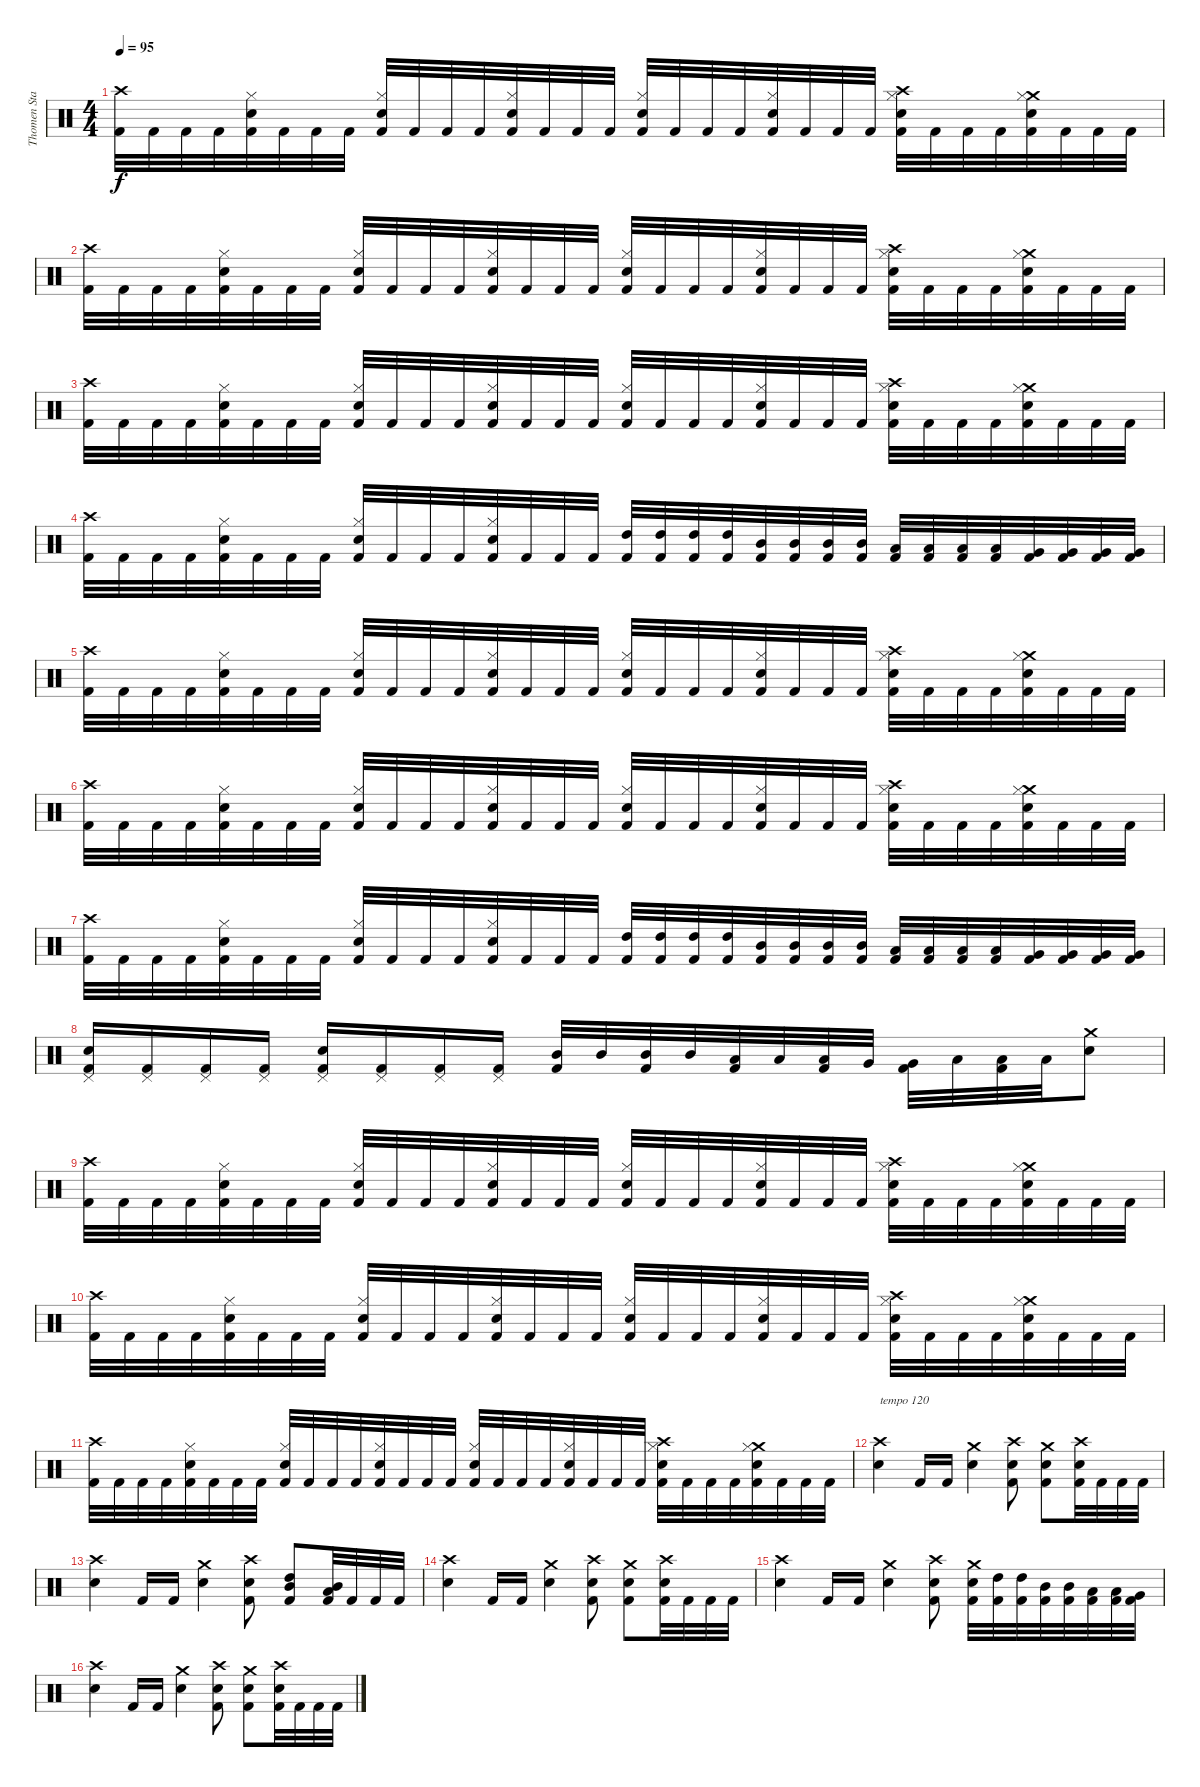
\track ("Thomen Stauch" "Thomen Sta") {instrument percussion}
\staff {score}
\articulation defaults
\ts (4 4)
\tempo 95
\clef neutral
\ks c
("Crash high (hit)" "Kick (hit) 2").32{dy f} "Kick (hit) 2".32 "Kick (hit) 2".32 "Kick (hit) 2".32 ("Hi-Hat (closed)" "Snare (hit) 2" "Kick (hit) 2").32 "Kick (hit) 2".32 "Kick (hit) 2".32 "Kick (hit) 2".32 ("Hi-Hat (closed)" "Snare (hit) 2" "Kick (hit) 2").32 "Kick (hit) 2".32 "Kick (hit) 2".32 "Kick (hit) 2".32 ("Hi-Hat (closed)" "Snare (hit) 2" "Kick (hit) 2").32 "Kick (hit) 2".32 "Kick (hit) 2".32 "Kick (hit) 2".32 ("Hi-Hat (closed)" "Snare (hit) 2" "Kick (hit) 2").32 "Kick (hit) 2".32 "Kick (hit) 2".32 "Kick (hit) 2".32 ("Hi-Hat (closed)" "Snare (hit) 2" "Kick (hit) 2").32 "Kick (hit) 2".32 "Kick (hit) 2".32 "Kick (hit) 2".32 ("Crash high (hit)" "Hi-Hat (closed)" "Snare (hit) 2" "Kick (hit) 2").32 "Kick (hit) 2".32 "Kick (hit) 2".32 "Kick (hit) 2".32 ("Crash medium (hit)" "Hi-Hat (closed)" "Snare (hit) 2" "Kick (hit) 2").32 "Kick (hit) 2".32 "Kick (hit) 2".32 "Kick (hit) 2".32 |
("Crash high (hit)" "Kick (hit) 2").32 "Kick (hit) 2".32 "Kick (hit) 2".32 "Kick (hit) 2".32 ("Hi-Hat (closed)" "Snare (hit) 2" "Kick (hit) 2").32 "Kick (hit) 2".32 "Kick (hit) 2".32 "Kick (hit) 2".32 ("Hi-Hat (closed)" "Snare (hit) 2" "Kick (hit) 2").32 "Kick (hit) 2".32 "Kick (hit) 2".32 "Kick (hit) 2".32 ("Hi-Hat (closed)" "Snare (hit) 2" "Kick (hit) 2").32 "Kick (hit) 2".32 "Kick (hit) 2".32 "Kick (hit) 2".32 ("Hi-Hat (closed)" "Snare (hit) 2" "Kick (hit) 2").32 "Kick (hit) 2".32 "Kick (hit) 2".32 "Kick (hit) 2".32 ("Hi-Hat (closed)" "Snare (hit) 2" "Kick (hit) 2").32 "Kick (hit) 2".32 "Kick (hit) 2".32 "Kick (hit) 2".32 ("Crash high (hit)" "Hi-Hat (closed)" "Snare (hit) 2" "Kick (hit) 2").32 "Kick (hit) 2".32 "Kick (hit) 2".32 "Kick (hit) 2".32 ("Crash medium (hit)" "Hi-Hat (closed)" "Snare (hit) 2" "Kick (hit) 2").32 "Kick (hit) 2".32 "Kick (hit) 2".32 "Kick (hit) 2".32 |
("Crash high (hit)" "Kick (hit) 2").32 "Kick (hit) 2".32 "Kick (hit) 2".32 "Kick (hit) 2".32 ("Hi-Hat (closed)" "Snare (hit) 2" "Kick (hit) 2").32 "Kick (hit) 2".32 "Kick (hit) 2".32 "Kick (hit) 2".32 ("Hi-Hat (closed)" "Snare (hit) 2" "Kick (hit) 2").32 "Kick (hit) 2".32 "Kick (hit) 2".32 "Kick (hit) 2".32 ("Hi-Hat (closed)" "Snare (hit) 2" "Kick (hit) 2").32 "Kick (hit) 2".32 "Kick (hit) 2".32 "Kick (hit) 2".32 ("Hi-Hat (closed)" "Snare (hit) 2" "Kick (hit) 2").32 "Kick (hit) 2".32 "Kick (hit) 2".32 "Kick (hit) 2".32 ("Hi-Hat (closed)" "Snare (hit) 2" "Kick (hit) 2").32 "Kick (hit) 2".32 "Kick (hit) 2".32 "Kick (hit) 2".32 ("Crash high (hit)" "Hi-Hat (closed)" "Snare (hit) 2" "Kick (hit) 2").32 "Kick (hit) 2".32 "Kick (hit) 2".32 "Kick (hit) 2".32 ("Crash medium (hit)" "Hi-Hat (closed)" "Snare (hit) 2" "Kick (hit) 2").32 "Kick (hit) 2".32 "Kick (hit) 2".32 "Kick (hit) 2".32 |
("Crash high (hit)" "Kick (hit) 2").32 "Kick (hit) 2".32 "Kick (hit) 2".32 "Kick (hit) 2".32 ("Hi-Hat (closed)" "Snare (hit) 2" "Kick (hit) 2").32 "Kick (hit) 2".32 "Kick (hit) 2".32 "Kick (hit) 2".32 ("Hi-Hat (closed)" "Snare (hit) 2" "Kick (hit) 2").32 "Kick (hit) 2".32 "Kick (hit) 2".32 "Kick (hit) 2".32 ("Hi-Hat (closed)" "Snare (hit) 2" "Kick (hit) 2").32 "Kick (hit) 2".32 "Kick (hit) 2".32 "Kick (hit) 2".32 ("High Tom (hit)" "Kick (hit) 2").32 ("High Tom (hit)" "Kick (hit) 2").32 ("High Tom (hit)" "Kick (hit) 2").32 ("High Tom (hit)" "Kick (hit) 2").32 ("Mid Tom (hit)" "Kick (hit) 2").32 ("Mid Tom (hit)" "Kick (hit) 2").32 ("Mid Tom (hit)" "Kick (hit) 2").32 ("Mid Tom (hit)" "Kick (hit) 2").32 ("Low Tom (hit)" "Kick (hit) 2").32 ("Low Tom (hit)" "Kick (hit) 2").32 ("Low Tom (hit)" "Kick (hit) 2").32 ("Low Tom (hit)" "Kick (hit) 2").32 ("Very Low Tom (hit)" "Kick (hit) 2").32 ("Very Low Tom (hit)" "Kick (hit) 2").32 ("Very Low Tom (hit)" "Kick (hit) 2").32 ("Very Low Tom (hit)" "Kick (hit) 2").32 |
("Crash high (hit)" "Kick (hit) 2").32 "Kick (hit) 2".32 "Kick (hit) 2".32 "Kick (hit) 2".32 ("Hi-Hat (closed)" "Snare (hit) 2" "Kick (hit) 2").32 "Kick (hit) 2".32 "Kick (hit) 2".32 "Kick (hit) 2".32 ("Hi-Hat (closed)" "Snare (hit) 2" "Kick (hit) 2").32 "Kick (hit) 2".32 "Kick (hit) 2".32 "Kick (hit) 2".32 ("Hi-Hat (closed)" "Snare (hit) 2" "Kick (hit) 2").32 "Kick (hit) 2".32 "Kick (hit) 2".32 "Kick (hit) 2".32 ("Hi-Hat (closed)" "Snare (hit) 2" "Kick (hit) 2").32 "Kick (hit) 2".32 "Kick (hit) 2".32 "Kick (hit) 2".32 ("Hi-Hat (closed)" "Snare (hit) 2" "Kick (hit) 2").32 "Kick (hit) 2".32 "Kick (hit) 2".32 "Kick (hit) 2".32 ("Crash high (hit)" "Hi-Hat (closed)" "Snare (hit) 2" "Kick (hit) 2").32 "Kick (hit) 2".32 "Kick (hit) 2".32 "Kick (hit) 2".32 ("Crash medium (hit)" "Hi-Hat (closed)" "Snare (hit) 2" "Kick (hit) 2").32 "Kick (hit) 2".32 "Kick (hit) 2".32 "Kick (hit) 2".32 |
("Crash high (hit)" "Kick (hit) 2").32 "Kick (hit) 2".32 "Kick (hit) 2".32 "Kick (hit) 2".32 ("Hi-Hat (closed)" "Snare (hit) 2" "Kick (hit) 2").32 "Kick (hit) 2".32 "Kick (hit) 2".32 "Kick (hit) 2".32 ("Hi-Hat (closed)" "Snare (hit) 2" "Kick (hit) 2").32 "Kick (hit) 2".32 "Kick (hit) 2".32 "Kick (hit) 2".32 ("Hi-Hat (closed)" "Snare (hit) 2" "Kick (hit) 2").32 "Kick (hit) 2".32 "Kick (hit) 2".32 "Kick (hit) 2".32 ("Hi-Hat (closed)" "Snare (hit) 2" "Kick (hit) 2").32 "Kick (hit) 2".32 "Kick (hit) 2".32 "Kick (hit) 2".32 ("Hi-Hat (closed)" "Snare (hit) 2" "Kick (hit) 2").32 "Kick (hit) 2".32 "Kick (hit) 2".32 "Kick (hit) 2".32 ("Crash high (hit)" "Hi-Hat (closed)" "Snare (hit) 2" "Kick (hit) 2").32 "Kick (hit) 2".32 "Kick (hit) 2".32 "Kick (hit) 2".32 ("Crash medium (hit)" "Hi-Hat (closed)" "Snare (hit) 2" "Kick (hit) 2").32 "Kick (hit) 2".32 "Kick (hit) 2".32 "Kick (hit) 2".32 |
("Crash high (hit)" "Kick (hit) 2").32 "Kick (hit) 2".32 "Kick (hit) 2".32 "Kick (hit) 2".32 ("Hi-Hat (closed)" "Snare (hit) 2" "Kick (hit) 2").32 "Kick (hit) 2".32 "Kick (hit) 2".32 "Kick (hit) 2".32 ("Hi-Hat (closed)" "Snare (hit) 2" "Kick (hit) 2").32 "Kick (hit) 2".32 "Kick (hit) 2".32 "Kick (hit) 2".32 ("Hi-Hat (closed)" "Snare (hit) 2" "Kick (hit) 2").32 "Kick (hit) 2".32 "Kick (hit) 2".32 "Kick (hit) 2".32 ("High Tom (hit)" "Kick (hit) 2").32 ("High Tom (hit)" "Kick (hit) 2").32 ("High Tom (hit)" "Kick (hit) 2").32 ("High Tom (hit)" "Kick (hit) 2").32 ("Mid Tom (hit)" "Kick (hit) 2").32 ("Mid Tom (hit)" "Kick (hit) 2").32 ("Mid Tom (hit)" "Kick (hit) 2").32 ("Mid Tom (hit)" "Kick (hit) 2").32 ("Low Tom (hit)" "Kick (hit) 2").32 ("Low Tom (hit)" "Kick (hit) 2").32 ("Low Tom (hit)" "Kick (hit) 2").32 ("Low Tom (hit)" "Kick (hit) 2").32 ("Very Low Tom (hit)" "Kick (hit) 2").32 ("Very Low Tom (hit)" "Kick (hit) 2").32 ("Very Low Tom (hit)" "Kick (hit) 2").32 ("Very Low Tom (hit)" "Kick (hit) 2").32 |
("Pedal Hi-Hat (hit)" "Snare (hit) 2" "Kick (hit) 2").16 ("Pedal Hi-Hat (hit)" "Kick (hit) 2").16 ("Pedal Hi-Hat (hit)" "Kick (hit) 2").16 ("Pedal Hi-Hat (hit)" "Kick (hit) 2").16 ("Pedal Hi-Hat (hit)" "Snare (hit) 2" "Kick (hit) 2").16 ("Pedal Hi-Hat (hit)" "Kick (hit) 2").16 ("Pedal Hi-Hat (hit)" "Kick (hit) 2").16 ("Pedal Hi-Hat (hit)" "Kick (hit) 2").16 ("Mid Tom (hit)" "Kick (hit) 2").32 "Mid Tom (hit)".32 ("Mid Tom (hit)" "Kick (hit) 2").32 "Mid Tom (hit)".32 ("Low Tom (hit)" "Kick (hit) 2").32 "Low Tom (hit)".32 ("Low Tom (hit)" "Kick (hit) 2").32 "Very Low Tom (hit)".32 ("Very Low Tom (hit)" "Kick (hit) 2").32 "Low Floor Tom (hit)".32 ("Low Floor Tom (hit)" "Kick (hit) 2").32 "Low Floor Tom (hit)".32 ("Crash medium (hit)" "Snare (hit) 2").8 |
("Crash high (hit)" "Kick (hit) 2").32 "Kick (hit) 2".32 "Kick (hit) 2".32 "Kick (hit) 2".32 ("Hi-Hat (closed)" "Snare (hit) 2" "Kick (hit) 2").32 "Kick (hit) 2".32 "Kick (hit) 2".32 "Kick (hit) 2".32 ("Hi-Hat (closed)" "Snare (hit) 2" "Kick (hit) 2").32 "Kick (hit) 2".32 "Kick (hit) 2".32 "Kick (hit) 2".32 ("Hi-Hat (closed)" "Snare (hit) 2" "Kick (hit) 2").32 "Kick (hit) 2".32 "Kick (hit) 2".32 "Kick (hit) 2".32 ("Hi-Hat (closed)" "Snare (hit) 2" "Kick (hit) 2").32 "Kick (hit) 2".32 "Kick (hit) 2".32 "Kick (hit) 2".32 ("Hi-Hat (closed)" "Snare (hit) 2" "Kick (hit) 2").32 "Kick (hit) 2".32 "Kick (hit) 2".32 "Kick (hit) 2".32 ("Crash high (hit)" "Hi-Hat (closed)" "Snare (hit) 2" "Kick (hit) 2").32 "Kick (hit) 2".32 "Kick (hit) 2".32 "Kick (hit) 2".32 ("Crash medium (hit)" "Hi-Hat (closed)" "Snare (hit) 2" "Kick (hit) 2").32 "Kick (hit) 2".32 "Kick (hit) 2".32 "Kick (hit) 2".32 |
("Crash high (hit)" "Kick (hit) 2").32 "Kick (hit) 2".32 "Kick (hit) 2".32 "Kick (hit) 2".32 ("Hi-Hat (closed)" "Snare (hit) 2" "Kick (hit) 2").32 "Kick (hit) 2".32 "Kick (hit) 2".32 "Kick (hit) 2".32 ("Hi-Hat (closed)" "Snare (hit) 2" "Kick (hit) 2").32 "Kick (hit) 2".32 "Kick (hit) 2".32 "Kick (hit) 2".32 ("Hi-Hat (closed)" "Snare (hit) 2" "Kick (hit) 2").32 "Kick (hit) 2".32 "Kick (hit) 2".32 "Kick (hit) 2".32 ("Hi-Hat (closed)" "Snare (hit) 2" "Kick (hit) 2").32 "Kick (hit) 2".32 "Kick (hit) 2".32 "Kick (hit) 2".32 ("Hi-Hat (closed)" "Snare (hit) 2" "Kick (hit) 2").32 "Kick (hit) 2".32 "Kick (hit) 2".32 "Kick (hit) 2".32 ("Crash high (hit)" "Hi-Hat (closed)" "Snare (hit) 2" "Kick (hit) 2").32 "Kick (hit) 2".32 "Kick (hit) 2".32 "Kick (hit) 2".32 ("Crash medium (hit)" "Hi-Hat (closed)" "Snare (hit) 2" "Kick (hit) 2").32 "Kick (hit) 2".32 "Kick (hit) 2".32 "Kick (hit) 2".32 |
("Crash high (hit)" "Kick (hit) 2").32 "Kick (hit) 2".32 "Kick (hit) 2".32 "Kick (hit) 2".32 ("Hi-Hat (closed)" "Snare (hit) 2" "Kick (hit) 2").32 "Kick (hit) 2".32 "Kick (hit) 2".32 "Kick (hit) 2".32 ("Hi-Hat (closed)" "Snare (hit) 2" "Kick (hit) 2").32 "Kick (hit) 2".32 "Kick (hit) 2".32 "Kick (hit) 2".32 ("Hi-Hat (closed)" "Snare (hit) 2" "Kick (hit) 2").32 "Kick (hit) 2".32 "Kick (hit) 2".32 "Kick (hit) 2".32 ("Hi-Hat (closed)" "Snare (hit) 2" "Kick (hit) 2").32 "Kick (hit) 2".32 "Kick (hit) 2".32 "Kick (hit) 2".32 ("Hi-Hat (closed)" "Snare (hit) 2" "Kick (hit) 2").32 "Kick (hit) 2".32 "Kick (hit) 2".32 "Kick (hit) 2".32 ("Crash high (hit)" "Hi-Hat (closed)" "Snare (hit) 2" "Kick (hit) 2").32 "Kick (hit) 2".32 "Kick (hit) 2".32 "Kick (hit) 2".32 ("Crash medium (hit)" "Hi-Hat (closed)" "Snare (hit) 2" "Kick (hit) 2").32 "Kick (hit) 2".32 "Kick (hit) 2".32 "Kick (hit) 2".32 |
("Crash high (hit)" "Snare (hit) 2").4{txt "tempo 120"} "Kick (hit) 2".16 "Kick (hit) 2".16 ("Crash medium (hit)" "Snare (hit) 2").4 ("Crash high (hit)" "Snare (hit) 2" "Kick (hit) 2").8 ("Crash medium (hit)" "Snare (hit) 2" "Kick (hit) 2").8 ("Crash high (hit)" "Snare (hit) 2" "Kick (hit) 2").32 "Kick (hit) 2".32 "Kick (hit) 2".32 "Kick (hit) 2".32 |
("Crash high (hit)" "Snare (hit) 2").4 "Kick (hit) 2".16 "Kick (hit) 2".16 ("Crash medium (hit)" "Snare (hit) 2").4 ("Crash high (hit)" "Snare (hit) 2" "Kick (hit) 2").8 ("High Tom (hit)" "Mid Tom (hit)" "Kick (hit) 2").8 ("Mid Tom (hit)" "Low Tom (hit)" "Kick (hit) 2").32 "Kick (hit) 2".32 "Kick (hit) 2".32 "Kick (hit) 2".32 |
("Crash high (hit)" "Snare (hit) 2").4 "Kick (hit) 2".16 "Kick (hit) 2".16 ("Crash medium (hit)" "Snare (hit) 2").4 ("Crash high (hit)" "Snare (hit) 2" "Kick (hit) 2").8 ("Crash medium (hit)" "Snare (hit) 2" "Kick (hit) 2").8 ("Crash high (hit)" "Snare (hit) 2" "Kick (hit) 2").32 "Kick (hit) 2".32 "Kick (hit) 2".32 "Kick (hit) 2".32 |
("Crash high (hit)" "Snare (hit) 2").4 "Kick (hit) 2".16 "Kick (hit) 2".16 ("Crash medium (hit)" "Snare (hit) 2").4 ("Crash high (hit)" "Snare (hit) 2" "Kick (hit) 2").8 ("Crash medium (hit)" "Snare (hit) 2" "Kick (hit) 2").32 ("High Tom (hit)" "Kick (hit) 2").32 ("High Tom (hit)" "Kick (hit) 2").32 ("Mid Tom (hit)" "Kick (hit) 2").32 ("Mid Tom (hit)" "Kick (hit) 2").32 ("Low Tom (hit)" "Kick (hit) 2").32 ("Low Tom (hit)" "Kick (hit) 2").32 ("Very Low Tom (hit)" "Kick (hit) 2").32 |
("Crash high (hit)" "Snare (hit) 2").4 "Kick (hit) 2".16 "Kick (hit) 2".16 ("Crash medium (hit)" "Snare (hit) 2").4 ("Crash high (hit)" "Snare (hit) 2" "Kick (hit) 2").8 ("Crash medium (hit)" "Snare (hit) 2" "Kick (hit) 2").8 ("Crash high (hit)" "Snare (hit) 2" "Kick (hit) 2").32 "Kick (hit) 2".32 "Kick (hit) 2".32 "Kick (hit) 2".32
